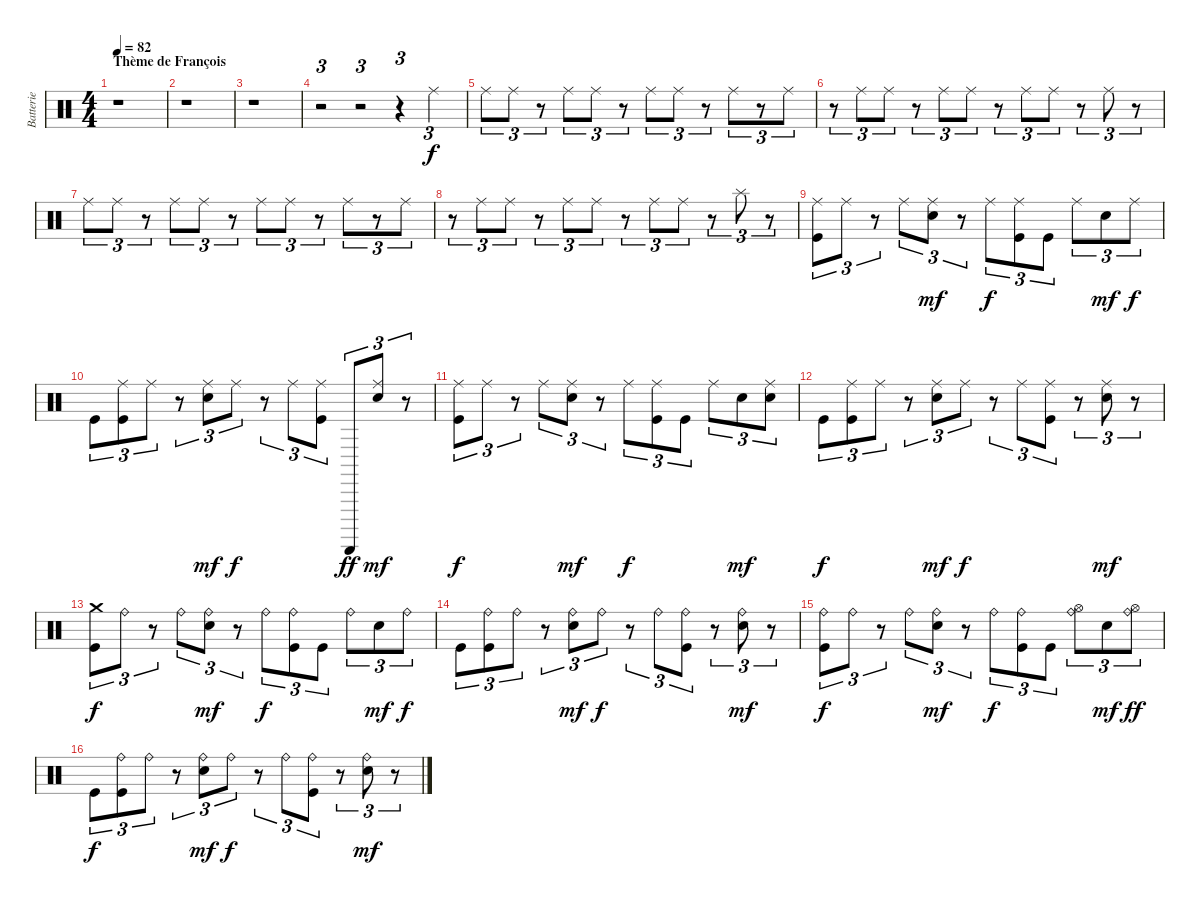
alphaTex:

\track ("Batterie" "Batterie") {instrument percussion}
\staff {score}
\articulation defaults
\ts (4 4)
\section ("" "Thème de François")
\tempo 82
\clef neutral
\ks c
r.1{dy f} |
r.1 |
r.1 |
r.2{tu (3 2)} r.2{tu (3 2)} r.4{tu (3 2)} "Ride (middle)".4{tu (3 2)} |
"Ride (middle)".8{tu (3 2)} "Ride (middle)".8{tu (3 2)} r.8{tu (3 2)} "Ride (middle)".8{tu (3 2)} "Ride (middle)".8{tu (3 2)} r.8{tu (3 2)} "Ride (middle)".8{tu (3 2)} "Ride (middle)".8{tu (3 2)} r.8{tu (3 2)} "Ride (middle)".8{tu (3 2)} r.8{tu (3 2)} "Ride (middle)".8{tu (3 2)} |
r.8{tu (3 2)} "Ride (middle)".8{tu (3 2)} "Ride (middle)".8{tu (3 2)} r.8{tu (3 2)} "Ride (middle)".8{tu (3 2)} "Ride (middle)".8{tu (3 2)} r.8{tu (3 2)} "Ride (middle)".8{tu (3 2)} "Ride (middle)".8{tu (3 2)} r.8{tu (3 2)} "Ride (middle)".8{tu (3 2)} r.8{tu (3 2)} |
"Ride (middle)".8{tu (3 2)} "Ride (middle)".8{tu (3 2)} r.8{tu (3 2)} "Ride (middle)".8{tu (3 2)} "Ride (middle)".8{tu (3 2)} r.8{tu (3 2)} "Ride (middle)".8{tu (3 2)} "Ride (middle)".8{tu (3 2)} r.8{tu (3 2)} "Ride (middle)".8{tu (3 2)} r.8{tu (3 2)} "Ride (middle)".8{tu (3 2)} |
r.8{tu (3 2)} "Ride (middle)".8{tu (3 2)} "Ride (middle)".8{tu (3 2)} r.8{tu (3 2)} "Ride (middle)".8{tu (3 2)} "Ride (middle)".8{tu (3 2)} r.8{tu (3 2)} "Ride (middle)".8{tu (3 2)} "Ride (middle)".8{tu (3 2)} r.8{tu (3 2)} "Splash (hit)".8{tu (3 2)} r.8{tu (3 2)} |
("Ride (middle)" "Kick (hit)").8{tu (3 2)} "Ride (middle)".8{tu (3 2)} r.8{tu (3 2)} "Ride (middle)".8{tu (3 2)} ("Ride (middle)" "Snare (hit) 2").8{tu (3 2) dy mf} r.8{tu (3 2)} "Ride (middle)".8{tu (3 2) dy f} ("Ride (middle)" "Kick (hit)").8{tu (3 2)} "Kick (hit)".8{tu (3 2)} "Ride (middle)".8{tu (3 2)} "Snare (hit) 2".8{tu (3 2) dy mf} "Ride (middle)".8{tu (3 2) dy f} |
"Kick (hit)".8{tu (3 2)} ("Ride (middle)" "Kick (hit)").8{tu (3 2)} "Ride (middle)".8{tu (3 2)} r.8{tu (3 2)} ("Ride (middle)" "Snare (hit) 2").8{tu (3 2) dy mf} "Ride (middle)".8{tu (3 2) dy f} r.8{tu (3 2)} "Ride (middle)".8{tu (3 2)} ("Ride (middle)" "Kick (hit)").8{tu (3 2)} "Guiro (scrap-return)".8{tu (3 2) dy ff} ("Ride (middle)" "Snare (hit) 2").8{tu (3 2) dy mf} r.8{tu (3 2)} |
("Ride (middle)" "Kick (hit)").8{tu (3 2) dy f} "Ride (middle)".8{tu (3 2)} r.8{tu (3 2)} "Ride (middle)".8{tu (3 2)} ("Ride (middle)" "Snare (hit) 2").8{tu (3 2) dy mf} r.8{tu (3 2)} "Ride (middle)".8{tu (3 2) dy f} ("Ride (middle)" "Kick (hit)").8{tu (3 2)} "Kick (hit)".8{tu (3 2)} "Ride (middle)".8{tu (3 2)} "Snare (hit) 2".8{tu (3 2) dy mf} ("Ride (middle)" "Snare (hit) 2").8{tu (3 2)} |
"Kick (hit)".8{tu (3 2) dy f} ("Ride (middle)" "Kick (hit)").8{tu (3 2)} "Ride (middle)".8{tu (3 2)} r.8{tu (3 2)} ("Ride (middle)" "Snare (hit) 2").8{tu (3 2) dy mf} "Ride (middle)".8{tu (3 2) dy f} r.8{tu (3 2)} "Ride (middle)".8{tu (3 2)} ("Ride (middle)" "Kick (hit)").8{tu (3 2)} r.8{tu (3 2)} ("Ride (middle)" "Snare (hit) 2").8{tu (3 2) dy mf} r.8{tu (3 2)} |
("Crash medium (hit)" "Kick (hit)").8{tu (3 2) dy f} "Ride (bell)".8{tu (3 2)} r.8{tu (3 2)} "Ride (bell)".8{tu (3 2)} ("Ride (bell)" "Snare (hit) 2").8{tu (3 2) dy mf} r.8{tu (3 2)} "Ride (bell)".8{tu (3 2) dy f} ("Ride (bell)" "Kick (hit)").8{tu (3 2)} "Kick (hit)".8{tu (3 2)} "Ride (bell)".8{tu (3 2)} "Snare (hit) 2".8{tu (3 2) dy mf} "Ride (bell)".8{tu (3 2) dy f} |
"Kick (hit)".8{tu (3 2)} ("Ride (bell)" "Kick (hit)").8{tu (3 2)} "Ride (bell)".8{tu (3 2)} r.8{tu (3 2)} ("Ride (bell)" "Snare (hit) 2").8{tu (3 2) dy mf} "Ride (bell)".8{tu (3 2) dy f} r.8{tu (3 2)} "Ride (bell)".8{tu (3 2)} ("Ride (bell)" "Kick (hit)").8{tu (3 2)} r.8{tu (3 2)} ("Ride (bell)" "Snare (hit) 2").8{tu (3 2) dy mf} r.8{tu (3 2)} |
("Ride (bell)" "Kick (hit)").8{tu (3 2) dy f} "Ride (bell)".8{tu (3 2)} r.8{tu (3 2)} "Ride (bell)".8{tu (3 2)} ("Ride (bell)" "Snare (hit) 2").8{tu (3 2) dy mf} r.8{tu (3 2)} "Ride (bell)".8{tu (3 2) dy f} ("Ride (bell)" "Kick (hit)").8{tu (3 2)} "Kick (hit)".8{tu (3 2)} ("Hi-Hat (open)" "Ride (bell)").8{tu (3 2)} "Snare (hit) 2".8{tu (3 2) dy mf} ("Hi-Hat (open)" "Ride (bell)").8{tu (3 2) dy ff} |
"Kick (hit)".8{tu (3 2) dy f} ("Ride (bell)" "Kick (hit)").8{tu (3 2)} "Ride (bell)".8{tu (3 2)} r.8{tu (3 2)} ("Ride (bell)" "Snare (hit) 2").8{tu (3 2) dy mf} "Ride (bell)".8{tu (3 2) dy f} r.8{tu (3 2)} "Ride (bell)".8{tu (3 2)} ("Ride (bell)" "Kick (hit)").8{tu (3 2)} r.8{tu (3 2)} ("Ride (bell)" "Snare (hit) 2").8{tu (3 2) dy mf} r.8{tu (3 2)}
